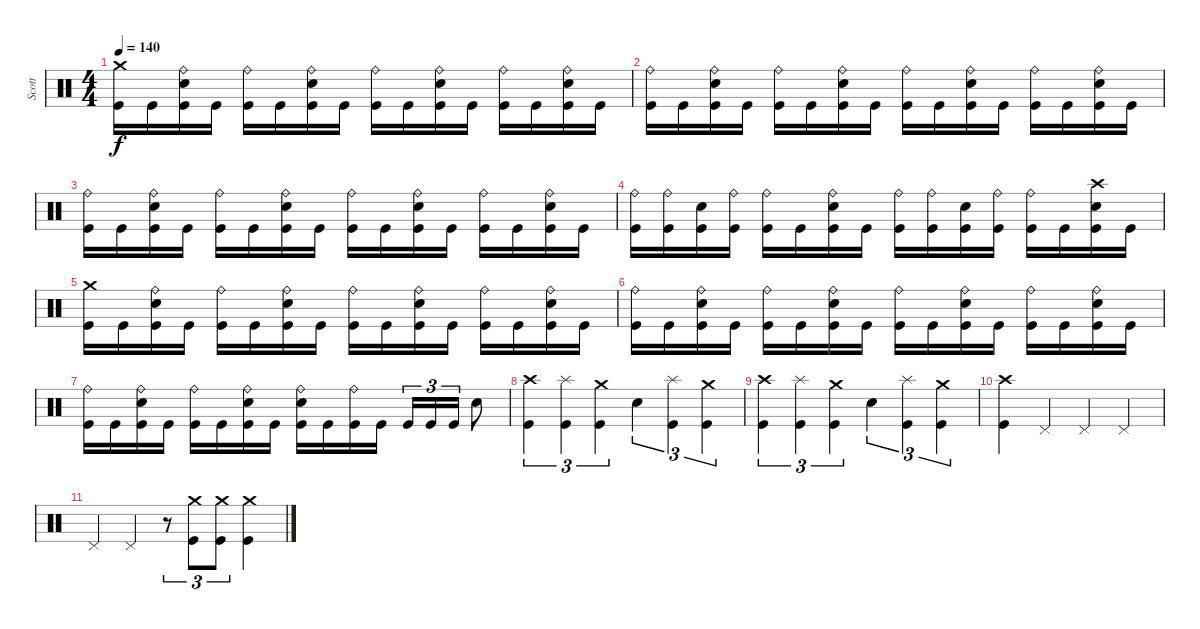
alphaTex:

\track ("Scott" "Scott") {instrument percussion}
\staff {score}
\articulation defaults
\ts (4 4)
\tempo 140
\clef neutral
\ks c
("Kick (hit)" "Crash medium (hit)").16{dy f} "Kick (hit)".16 ("Kick (hit)" "Snare (hit) 2" "Ride (bell)").16 "Kick (hit)".16 ("Kick (hit)" "Ride (bell)").16 "Kick (hit)".16 ("Kick (hit)" "Snare (hit) 2" "Ride (bell)").16 "Kick (hit)".16 ("Kick (hit)" "Ride (bell)").16 "Kick (hit)".16 ("Kick (hit)" "Snare (hit) 2" "Ride (bell)").16 "Kick (hit)".16 ("Kick (hit)" "Ride (bell)").16 "Kick (hit)".16 ("Kick (hit)" "Snare (hit) 2" "Ride (bell)").16 "Kick (hit)".16 |
("Kick (hit)" "Ride (bell)").16 "Kick (hit)".16 ("Kick (hit)" "Snare (hit) 2" "Ride (bell)").16 "Kick (hit)".16 ("Kick (hit)" "Ride (bell)").16 "Kick (hit)".16 ("Kick (hit)" "Snare (hit) 2" "Ride (bell)").16 "Kick (hit)".16 ("Kick (hit)" "Ride (bell)").16 "Kick (hit)".16 ("Kick (hit)" "Snare (hit) 2" "Ride (bell)").16 "Kick (hit)".16 ("Kick (hit)" "Ride (bell)").16 "Kick (hit)".16 ("Kick (hit)" "Snare (hit) 2" "Ride (bell)").16 "Kick (hit)".16 |
("Kick (hit)" "Ride (bell)").16 "Kick (hit)".16 ("Kick (hit)" "Snare (hit) 2" "Ride (bell)").16 "Kick (hit)".16 ("Kick (hit)" "Ride (bell)").16 "Kick (hit)".16 ("Kick (hit)" "Snare (hit) 2" "Ride (bell)").16 "Kick (hit)".16 ("Kick (hit)" "Ride (bell)").16 "Kick (hit)".16 ("Kick (hit)" "Snare (hit) 2" "Ride (bell)").16 "Kick (hit)".16 ("Kick (hit)" "Ride (bell)").16 "Kick (hit)".16 ("Kick (hit)" "Snare (hit) 2" "Ride (bell)").16 "Kick (hit)".16 |
("Kick (hit)" "Ride (bell)").16 ("Kick (hit)" "Ride (bell)").16 ("Kick (hit)" "Snare (hit) 2").16 ("Kick (hit)" "Ride (bell)").16 ("Kick (hit)" "Ride (bell)").16 "Kick (hit)".16 ("Kick (hit)" "Snare (hit) 2" "Ride (bell)").16 "Kick (hit)".16 ("Kick (hit)" "Ride (bell)").16 ("Kick (hit)" "Ride (bell)").16 ("Kick (hit)" "Snare (hit) 2").16 ("Kick (hit)" "Ride (bell)").16 ("Kick (hit)" "Ride (bell)").16 "Kick (hit)".16 ("Kick (hit)" "Snare (hit) 2" "Crash high (hit)").16 "Kick (hit)".16 |
("Kick (hit)" "Crash medium (hit)").16 "Kick (hit)".16 ("Kick (hit)" "Snare (hit) 2" "Ride (bell)").16 "Kick (hit)".16 ("Kick (hit)" "Ride (bell)").16 "Kick (hit)".16 ("Kick (hit)" "Snare (hit) 2" "Ride (bell)").16 "Kick (hit)".16 ("Kick (hit)" "Ride (bell)").16 "Kick (hit)".16 ("Kick (hit)" "Snare (hit) 2" "Ride (bell)").16 "Kick (hit)".16 ("Kick (hit)" "Ride (bell)").16 "Kick (hit)".16 ("Kick (hit)" "Snare (hit) 2" "Ride (bell)").16 "Kick (hit)".16 |
("Kick (hit)" "Ride (bell)").16 "Kick (hit)".16 ("Kick (hit)" "Snare (hit) 2" "Ride (bell)").16 "Kick (hit)".16 ("Kick (hit)" "Ride (bell)").16 "Kick (hit)".16 ("Kick (hit)" "Snare (hit) 2" "Ride (bell)").16 "Kick (hit)".16 ("Kick (hit)" "Ride (bell)").16 "Kick (hit)".16 ("Kick (hit)" "Snare (hit) 2" "Ride (bell)").16 "Kick (hit)".16 ("Kick (hit)" "Ride (bell)").16 "Kick (hit)".16 ("Kick (hit)" "Snare (hit) 2" "Ride (bell)").16 "Kick (hit)".16 |
("Kick (hit)" "Ride (bell)").16 "Kick (hit)".16 ("Kick (hit)" "Snare (hit) 2" "Ride (bell)").16 "Kick (hit)".16 ("Kick (hit)" "Ride (bell)").16 "Kick (hit)".16 ("Kick (hit)" "Snare (hit) 2" "Ride (bell)").16 "Kick (hit)".16 ("Kick (hit)" "Snare (hit) 2" "Ride (bell)").16 "Kick (hit)".16 ("Kick (hit)" "Ride (bell)").16 "Kick (hit)".16 "Kick (hit)".16{tu (3 2)} "Kick (hit)".16{tu (3 2)} "Kick (hit)".16{tu (3 2)} "Snare (hit) 2".8 |
("Kick (hit)" "Crash high (hit)").4{tu (3 2)} ("Kick (hit)" "Splash (hit)").4{tu (3 2)} ("Kick (hit)" "Crash medium (hit)").4{tu (3 2)} "Snare (hit) 2".4{tu (3 2)} ("Kick (hit)" "Splash (hit)").4{tu (3 2)} ("Kick (hit)" "Crash medium (hit)").4{tu (3 2)} |
("Kick (hit)" "Crash high (hit)").4{tu (3 2)} ("Kick (hit)" "Splash (hit)").4{tu (3 2)} ("Kick (hit)" "Crash medium (hit)").4{tu (3 2)} "Snare (hit) 2".4{tu (3 2)} ("Kick (hit)" "Splash (hit)").4{tu (3 2)} ("Kick (hit)" "Crash medium (hit)").4{tu (3 2)} |
("Kick (hit)" "Crash high (hit)").4 "Pedal Hi-Hat (hit)".4 "Pedal Hi-Hat (hit)".4 "Pedal Hi-Hat (hit)".4 |
"Pedal Hi-Hat (hit)".4 "Pedal Hi-Hat (hit)".4 r.8{tu (3 2)} ("Kick (hit)" "Crash medium (hit)").8{tu (3 2)} ("Kick (hit)" "Crash medium (hit)").8{tu (3 2)} ("Kick (hit)" "Crash medium (hit)").4
